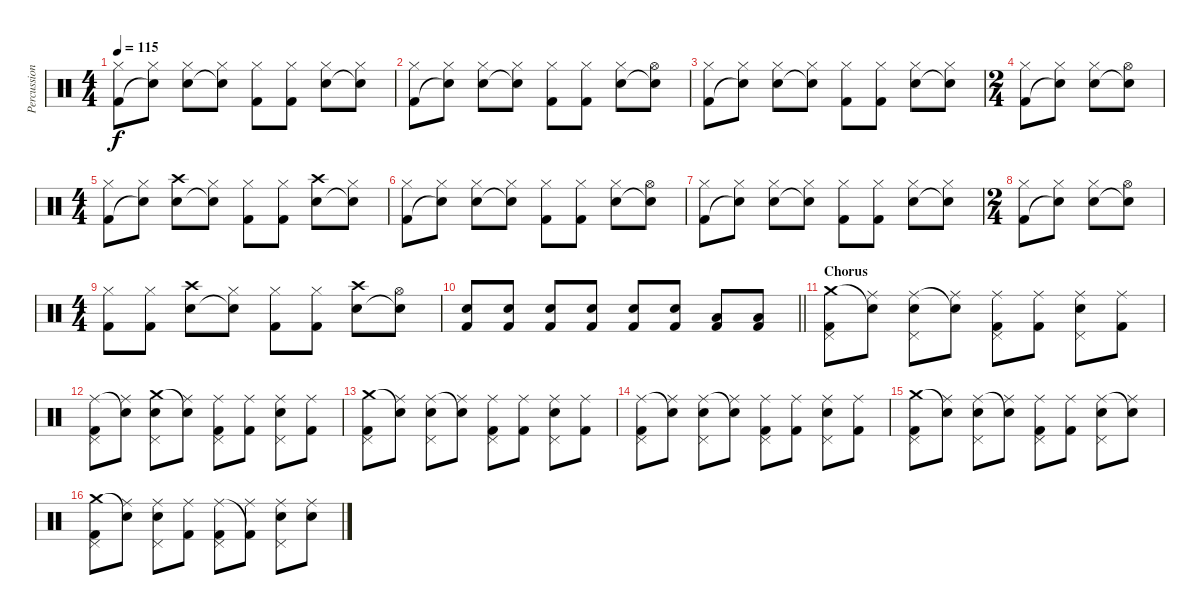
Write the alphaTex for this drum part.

\track ("Percussioni" "Percussion") {instrument percussion}
\staff {score}
\articulation defaults
\ts (4 4)
\tempo 115
\clef neutral
\ks c
("Hi-Hat (closed)" "Kick (hit) 2").8{dy f} ("Hi-Hat (closed)" "Snare (hit)"{t}).8 ("Hi-Hat (closed)" "Electric Snare (hit)").8 ("Hi-Hat (closed)" "Snare (hit)"{t}).8 ("Hi-Hat (closed)" "Kick (hit) 2").8 ("Hi-Hat (closed)" "Kick (hit) 2").8 ("Hi-Hat (closed)" "Electric Snare (hit)").8 ("Hi-Hat (closed)" "Snare (hit)"{t}).8 |
("Hi-Hat (closed)" "Kick (hit) 2").8 ("Hi-Hat (closed)" "Snare (hit)"{t}).8 ("Hi-Hat (closed)" "Electric Snare (hit)").8 ("Hi-Hat (closed)" "Snare (hit)"{t}).8 ("Hi-Hat (closed)" "Kick (hit) 2").8 ("Hi-Hat (closed)" "Kick (hit) 2").8 ("Hi-Hat (closed)" "Electric Snare (hit)").8 ("Hi-Hat (open)" "Snare (hit)"{t}).8 |
("Hi-Hat (closed)" "Kick (hit) 2").8 ("Hi-Hat (closed)" "Snare (hit)"{t}).8 ("Hi-Hat (closed)" "Electric Snare (hit)").8 ("Hi-Hat (closed)" "Snare (hit)"{t}).8 ("Hi-Hat (closed)" "Kick (hit) 2").8 ("Hi-Hat (closed)" "Kick (hit) 2").8 ("Hi-Hat (closed)" "Electric Snare (hit)").8 ("Hi-Hat (closed)" "Snare (hit)"{t}).8 |
\ts (2 4)
("Hi-Hat (closed)" "Kick (hit) 2").8 ("Hi-Hat (closed)" "Snare (hit)"{t}).8 ("Hi-Hat (closed)" "Electric Snare (hit)").8 ("Hi-Hat (open)" "Snare (hit)"{t}).8 |
\ts (4 4)
("Hi-Hat (closed)" "Kick (hit) 2").8 ("Hi-Hat (closed)" "Snare (hit)"{t}).8 ("Crash high (hit)" "Electric Snare (hit)").8 ("Hi-Hat (closed)" "Snare (hit)"{t}).8 ("Hi-Hat (closed)" "Kick (hit) 2").8 ("Hi-Hat (closed)" "Kick (hit) 2").8 ("Crash high (hit)" "Electric Snare (hit)").8 ("Hi-Hat (closed)" "Snare (hit)"{t}).8 |
("Hi-Hat (closed)" "Kick (hit) 2").8 ("Hi-Hat (closed)" "Snare (hit)"{t}).8 ("Hi-Hat (closed)" "Electric Snare (hit)").8 ("Hi-Hat (closed)" "Snare (hit)"{t}).8 ("Hi-Hat (closed)" "Kick (hit) 2").8 ("Hi-Hat (closed)" "Kick (hit) 2").8 ("Hi-Hat (closed)" "Electric Snare (hit)").8 ("Hi-Hat (open)" "Snare (hit)"{t}).8 |
("Hi-Hat (closed)" "Kick (hit) 2").8 ("Hi-Hat (closed)" "Snare (hit)"{t}).8 ("Hi-Hat (closed)" "Electric Snare (hit)").8 ("Hi-Hat (closed)" "Snare (hit)"{t}).8 ("Hi-Hat (closed)" "Kick (hit) 2").8 ("Hi-Hat (closed)" "Kick (hit) 2").8 ("Hi-Hat (closed)" "Electric Snare (hit)").8 ("Hi-Hat (closed)" "Snare (hit)"{t}).8 |
\ts (2 4)
("Hi-Hat (closed)" "Kick (hit) 2").8 ("Hi-Hat (closed)" "Snare (hit)"{t}).8 ("Hi-Hat (closed)" "Electric Snare (hit)").8 ("Hi-Hat (open)" "Snare (hit)"{t}).8 |
\ts (4 4)
("Hi-Hat (closed)" "Kick (hit) 2").8 ("Hi-Hat (closed)" "Kick (hit) 2").8 ("Crash high (hit)" "Electric Snare (hit)").8 ("Hi-Hat (closed)" "Snare (hit)"{t}).8 ("Hi-Hat (closed)" "Kick (hit) 2").8 ("Hi-Hat (closed)" "Kick (hit) 2").8 ("Crash high (hit)" "Electric Snare (hit)").8 ("Hi-Hat (open)" "Snare (hit)"{t}).8 |
\barLineRight lightlight
("Electric Snare (hit)" "Kick (hit) 2").8 ("Electric Snare (hit)" "Kick (hit) 2").8 ("Electric Snare (hit)" "Kick (hit) 2").8 ("Electric Snare (hit)" "Kick (hit) 2").8 ("Electric Snare (hit)" "Kick (hit) 2").8 ("Electric Snare (hit)" "Kick (hit) 2").8 ("Low Tom (hit)" "Kick (hit) 2").8 ("Low Floor Tom (hit)" "Kick (hit) 2").8 |
\section ("" "Chorus")
("Pedal Hi-Hat (hit)" "Crash medium (hit)" "Kick (hit) 2").8 ("Ride (middle)" "Snare (hit)"{t}).8 ("Pedal Hi-Hat (hit)" "Ride (middle)" "Electric Snare (hit)").8 ("Ride (middle)" "Snare (hit)"{t}).8 ("Pedal Hi-Hat (hit)" "Ride (middle)" "Kick (hit) 2").8 ("Ride (middle)" "Kick (hit) 2").8 ("Pedal Hi-Hat (hit)" "Ride (middle)" "Electric Snare (hit)").8 ("Ride (middle)" "Kick (hit) 2").8 |
("Pedal Hi-Hat (hit)" "Ride (middle)" "Kick (hit) 2").8 ("Ride (middle)" "Snare (hit)"{t}).8 ("Pedal Hi-Hat (hit)" "Crash medium (hit)" "Electric Snare (hit)").8 ("Ride (middle)" "Snare (hit)"{t}).8 ("Pedal Hi-Hat (hit)" "Ride (middle)" "Kick (hit) 2").8 ("Ride (middle)" "Kick (hit) 2").8 ("Pedal Hi-Hat (hit)" "Ride (middle)" "Electric Snare (hit)").8 ("Ride (middle)" "Kick (hit) 2").8 |
("Pedal Hi-Hat (hit)" "Crash medium (hit)" "Kick (hit) 2").8 ("Ride (middle)" "Snare (hit)"{t}).8 ("Pedal Hi-Hat (hit)" "Ride (middle)" "Electric Snare (hit)").8 ("Ride (middle)" "Snare (hit)"{t}).8 ("Pedal Hi-Hat (hit)" "Ride (middle)" "Kick (hit) 2").8 ("Ride (middle)" "Kick (hit) 2").8 ("Pedal Hi-Hat (hit)" "Ride (middle)" "Electric Snare (hit)").8 ("Ride (middle)" "Kick (hit) 2").8 |
("Pedal Hi-Hat (hit)" "Ride (middle)" "Kick (hit) 2").8 ("Ride (middle)" "Snare (hit)"{t}).8 ("Pedal Hi-Hat (hit)" "Ride (middle)" "Electric Snare (hit)").8 ("Ride (middle)" "Snare (hit)"{t}).8 ("Pedal Hi-Hat (hit)" "Ride (middle)" "Kick (hit) 2").8 ("Ride (middle)" "Kick (hit) 2").8 ("Pedal Hi-Hat (hit)" "Ride (middle)" "Electric Snare (hit)").8 ("Ride (middle)" "Kick (hit) 2").8 |
("Pedal Hi-Hat (hit)" "Crash medium (hit)" "Kick (hit) 2").8 ("Ride (middle)" "Snare (hit)"{t}).8 ("Pedal Hi-Hat (hit)" "Ride (middle)" "Electric Snare (hit)").8 ("Ride (middle)" "Snare (hit)"{t}).8 ("Pedal Hi-Hat (hit)" "Ride (middle)" "Kick (hit) 2").8 ("Ride (middle)" "Kick (hit) 2").8 ("Pedal Hi-Hat (hit)" "Ride (middle)" "Electric Snare (hit)").8 ("Ride (middle)" "Snare (hit)"{t}).8 |
("Pedal Hi-Hat (hit)" "Crash medium (hit)" "Kick (hit) 2").8 ("Ride (middle)" "Snare (hit)"{t}).8 ("Pedal Hi-Hat (hit)" "Ride (middle)" "Electric Snare (hit)").8 ("Ride (middle)" "Kick (hit) 2").8 ("Pedal Hi-Hat (hit)" "Ride (middle)" "Kick (hit) 2").8 ("Ride (middle)" "Kick (hit) 2"{t}).8 ("Pedal Hi-Hat (hit)" "Ride (middle)" "Electric Snare (hit)").8 ("Ride (middle)" "Electric Snare (hit)").8
